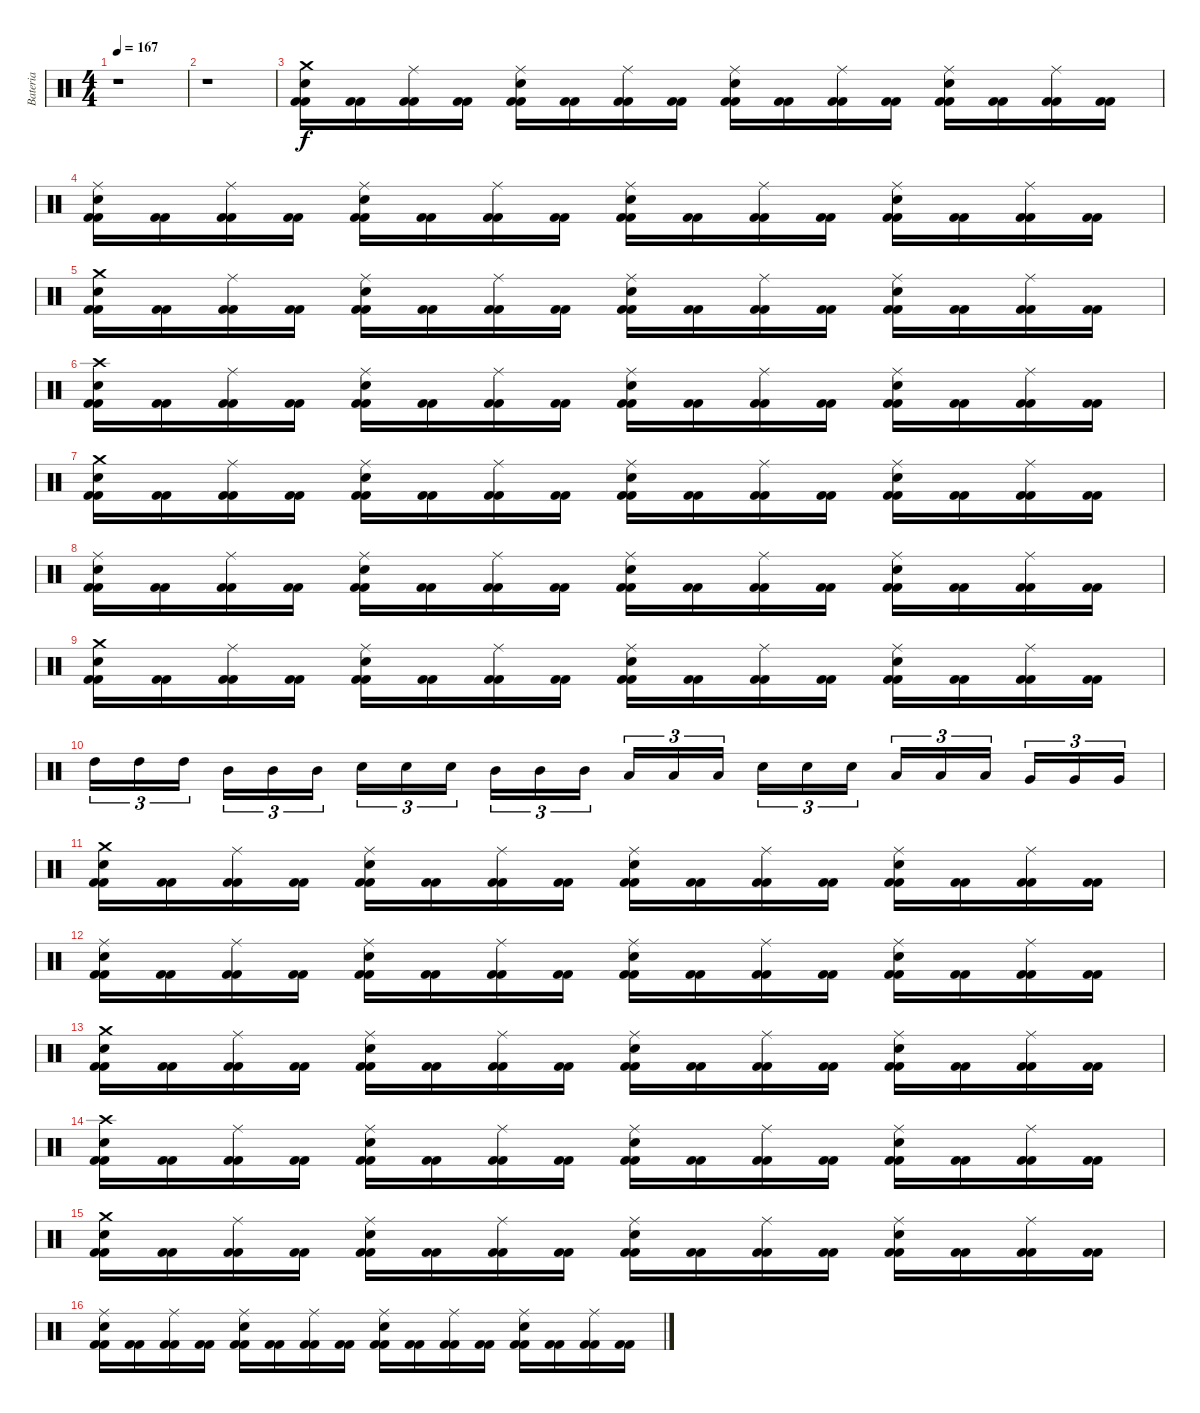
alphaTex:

\track ("Bateria" "Bateria") {instrument percussion}
\staff {score}
\articulation defaults
\ts (4 4)
\tempo 167
\clef neutral
\ks c
r.1{dy f} |
r.1 |
("Kick (hit) 2" "Kick (hit) 2" "Snare (hit) 2" "Crash medium (hit)").16 ("Kick (hit) 2" "Kick (hit) 2").16 ("Kick (hit) 2" "Kick (hit) 2" "Ride (middle)").16 ("Kick (hit) 2" "Kick (hit) 2").16 ("Kick (hit) 2" "Kick (hit) 2" "Snare (hit) 2" "Ride (middle)").16 ("Kick (hit) 2" "Kick (hit) 2").16 ("Kick (hit) 2" "Kick (hit) 2" "Ride (middle)").16 ("Kick (hit) 2" "Kick (hit) 2").16 ("Kick (hit) 2" "Kick (hit) 2" "Snare (hit) 2" "Ride (middle)").16 ("Kick (hit) 2" "Kick (hit) 2").16 ("Kick (hit) 2" "Kick (hit) 2" "Ride (middle)").16 ("Kick (hit) 2" "Kick (hit) 2").16 ("Kick (hit) 2" "Kick (hit) 2" "Snare (hit) 2" "Ride (middle)").16 ("Kick (hit) 2" "Kick (hit) 2").16 ("Kick (hit) 2" "Kick (hit) 2" "Ride (middle)").16 ("Kick (hit) 2" "Kick (hit) 2").16 |
("Kick (hit) 2" "Kick (hit) 2" "Snare (hit) 2" "Ride (middle)").16 ("Kick (hit) 2" "Kick (hit) 2").16 ("Kick (hit) 2" "Kick (hit) 2" "Ride (middle)").16 ("Kick (hit) 2" "Kick (hit) 2").16 ("Kick (hit) 2" "Kick (hit) 2" "Snare (hit) 2" "Ride (middle)").16 ("Kick (hit) 2" "Kick (hit) 2").16 ("Kick (hit) 2" "Kick (hit) 2" "Ride (middle)").16 ("Kick (hit) 2" "Kick (hit) 2").16 ("Kick (hit) 2" "Kick (hit) 2" "Snare (hit) 2" "Ride (middle)").16 ("Kick (hit) 2" "Kick (hit) 2").16 ("Kick (hit) 2" "Kick (hit) 2" "Ride (middle)").16 ("Kick (hit) 2" "Kick (hit) 2").16 ("Kick (hit) 2" "Kick (hit) 2" "Snare (hit) 2" "Ride (middle)").16 ("Kick (hit) 2" "Kick (hit) 2").16 ("Kick (hit) 2" "Kick (hit) 2" "Ride (middle)").16 ("Kick (hit) 2" "Kick (hit) 2").16 |
("Kick (hit) 2" "Kick (hit) 2" "Snare (hit) 2" "Crash medium (hit)").16 ("Kick (hit) 2" "Kick (hit) 2").16 ("Kick (hit) 2" "Kick (hit) 2" "Ride (middle)").16 ("Kick (hit) 2" "Kick (hit) 2").16 ("Kick (hit) 2" "Kick (hit) 2" "Snare (hit) 2" "Ride (middle)").16 ("Kick (hit) 2" "Kick (hit) 2").16 ("Kick (hit) 2" "Kick (hit) 2" "Ride (middle)").16 ("Kick (hit) 2" "Kick (hit) 2").16 ("Kick (hit) 2" "Kick (hit) 2" "Snare (hit) 2" "Ride (middle)").16 ("Kick (hit) 2" "Kick (hit) 2").16 ("Kick (hit) 2" "Kick (hit) 2" "Ride (middle)").16 ("Kick (hit) 2" "Kick (hit) 2").16 ("Kick (hit) 2" "Kick (hit) 2" "Snare (hit) 2" "Ride (middle)").16 ("Kick (hit) 2" "Kick (hit) 2").16 ("Kick (hit) 2" "Kick (hit) 2" "Ride (middle)").16 ("Kick (hit) 2" "Kick (hit) 2").16 |
("Kick (hit) 2" "Kick (hit) 2" "Snare (hit) 2" "Crash high (hit)").16 ("Kick (hit) 2" "Kick (hit) 2").16 ("Kick (hit) 2" "Kick (hit) 2" "Ride (middle)").16 ("Kick (hit) 2" "Kick (hit) 2").16 ("Kick (hit) 2" "Kick (hit) 2" "Snare (hit) 2" "Ride (middle)").16 ("Kick (hit) 2" "Kick (hit) 2").16 ("Kick (hit) 2" "Kick (hit) 2" "Ride (middle)").16 ("Kick (hit) 2" "Kick (hit) 2").16 ("Kick (hit) 2" "Kick (hit) 2" "Snare (hit) 2" "Ride (middle)").16 ("Kick (hit) 2" "Kick (hit) 2").16 ("Kick (hit) 2" "Kick (hit) 2" "Ride (middle)").16 ("Kick (hit) 2" "Kick (hit) 2").16 ("Kick (hit) 2" "Kick (hit) 2" "Snare (hit) 2" "Ride (middle)").16 ("Kick (hit) 2" "Kick (hit) 2").16 ("Kick (hit) 2" "Kick (hit) 2" "Ride (middle)").16 ("Kick (hit) 2" "Kick (hit) 2").16 |
("Kick (hit) 2" "Kick (hit) 2" "Snare (hit) 2" "Crash medium (hit)").16 ("Kick (hit) 2" "Kick (hit) 2").16 ("Kick (hit) 2" "Kick (hit) 2" "Ride (middle)").16 ("Kick (hit) 2" "Kick (hit) 2").16 ("Kick (hit) 2" "Kick (hit) 2" "Snare (hit) 2" "Ride (middle)").16 ("Kick (hit) 2" "Kick (hit) 2").16 ("Kick (hit) 2" "Kick (hit) 2" "Ride (middle)").16 ("Kick (hit) 2" "Kick (hit) 2").16 ("Kick (hit) 2" "Kick (hit) 2" "Snare (hit) 2" "Ride (middle)").16 ("Kick (hit) 2" "Kick (hit) 2").16 ("Kick (hit) 2" "Kick (hit) 2" "Ride (middle)").16 ("Kick (hit) 2" "Kick (hit) 2").16 ("Kick (hit) 2" "Kick (hit) 2" "Snare (hit) 2" "Ride (middle)").16 ("Kick (hit) 2" "Kick (hit) 2").16 ("Kick (hit) 2" "Kick (hit) 2" "Ride (middle)").16 ("Kick (hit) 2" "Kick (hit) 2").16 |
("Kick (hit) 2" "Kick (hit) 2" "Snare (hit) 2" "Ride (middle)").16 ("Kick (hit) 2" "Kick (hit) 2").16 ("Kick (hit) 2" "Kick (hit) 2" "Ride (middle)").16 ("Kick (hit) 2" "Kick (hit) 2").16 ("Kick (hit) 2" "Kick (hit) 2" "Snare (hit) 2" "Ride (middle)").16 ("Kick (hit) 2" "Kick (hit) 2").16 ("Kick (hit) 2" "Kick (hit) 2" "Ride (middle)").16 ("Kick (hit) 2" "Kick (hit) 2").16 ("Kick (hit) 2" "Kick (hit) 2" "Snare (hit) 2" "Ride (middle)").16 ("Kick (hit) 2" "Kick (hit) 2").16 ("Kick (hit) 2" "Kick (hit) 2" "Ride (middle)").16 ("Kick (hit) 2" "Kick (hit) 2").16 ("Kick (hit) 2" "Kick (hit) 2" "Snare (hit) 2" "Ride (middle)").16 ("Kick (hit) 2" "Kick (hit) 2").16 ("Kick (hit) 2" "Kick (hit) 2" "Ride (middle)").16 ("Kick (hit) 2" "Kick (hit) 2").16 |
("Kick (hit) 2" "Kick (hit) 2" "Snare (hit) 2" "Crash medium (hit)").16 ("Kick (hit) 2" "Kick (hit) 2").16 ("Kick (hit) 2" "Kick (hit) 2" "Ride (middle)").16 ("Kick (hit) 2" "Kick (hit) 2").16 ("Kick (hit) 2" "Kick (hit) 2" "Snare (hit) 2" "Ride (middle)").16 ("Kick (hit) 2" "Kick (hit) 2").16 ("Kick (hit) 2" "Kick (hit) 2" "Ride (middle)").16 ("Kick (hit) 2" "Kick (hit) 2").16 ("Kick (hit) 2" "Kick (hit) 2" "Snare (hit) 2" "Ride (middle)").16 ("Kick (hit) 2" "Kick (hit) 2").16 ("Kick (hit) 2" "Kick (hit) 2" "Ride (middle)").16 ("Kick (hit) 2" "Kick (hit) 2").16 ("Kick (hit) 2" "Kick (hit) 2" "Snare (hit) 2" "Ride (middle)").16 ("Kick (hit) 2" "Kick (hit) 2").16 ("Kick (hit) 2" "Kick (hit) 2" "Ride (middle)").16 ("Kick (hit) 2" "Kick (hit) 2").16 |
"High Tom (hit)".16{tu (3 2)} "High Tom (hit)".16{tu (3 2)} "High Tom (hit)".16{tu (3 2)} "Mid Tom (hit)".16{tu (3 2)} "Mid Tom (hit)".16{tu (3 2)} "Mid Tom (hit)".16{tu (3 2)} "Snare (hit) 2".16{tu (3 2)} "Snare (hit) 2".16{tu (3 2)} "Snare (hit) 2".16{tu (3 2)} "Mid Tom (hit)".16{tu (3 2)} "Mid Tom (hit)".16{tu (3 2)} "Mid Tom (hit)".16{tu (3 2)} "Low Tom (hit)".16{tu (3 2)} "Low Tom (hit)".16{tu (3 2)} "Low Tom (hit)".16{tu (3 2)} "Snare (hit) 2".16{tu (3 2)} "Snare (hit) 2".16{tu (3 2)} "Snare (hit) 2".16{tu (3 2)} "Low Tom (hit)".16{tu (3 2)} "Low Tom (hit)".16{tu (3 2)} "Low Tom (hit)".16{tu (3 2)} "Very Low Tom (hit)".16{tu (3 2)} "Very Low Tom (hit)".16{tu (3 2)} "Very Low Tom (hit)".16{tu (3 2)} |
("Kick (hit) 2" "Kick (hit) 2" "Snare (hit) 2" "Crash medium (hit)").16 ("Kick (hit) 2" "Kick (hit) 2").16 ("Kick (hit) 2" "Kick (hit) 2" "Ride (middle)").16 ("Kick (hit) 2" "Kick (hit) 2").16 ("Kick (hit) 2" "Kick (hit) 2" "Snare (hit) 2" "Ride (middle)").16 ("Kick (hit) 2" "Kick (hit) 2").16 ("Kick (hit) 2" "Kick (hit) 2" "Ride (middle)").16 ("Kick (hit) 2" "Kick (hit) 2").16 ("Kick (hit) 2" "Kick (hit) 2" "Snare (hit) 2" "Ride (middle)").16 ("Kick (hit) 2" "Kick (hit) 2").16 ("Kick (hit) 2" "Kick (hit) 2" "Ride (middle)").16 ("Kick (hit) 2" "Kick (hit) 2").16 ("Kick (hit) 2" "Kick (hit) 2" "Snare (hit) 2" "Ride (middle)").16 ("Kick (hit) 2" "Kick (hit) 2").16 ("Kick (hit) 2" "Kick (hit) 2" "Ride (middle)").16 ("Kick (hit) 2" "Kick (hit) 2").16 |
("Kick (hit) 2" "Kick (hit) 2" "Snare (hit) 2" "Ride (middle)").16 ("Kick (hit) 2" "Kick (hit) 2").16 ("Kick (hit) 2" "Kick (hit) 2" "Ride (middle)").16 ("Kick (hit) 2" "Kick (hit) 2").16 ("Kick (hit) 2" "Kick (hit) 2" "Snare (hit) 2" "Ride (middle)").16 ("Kick (hit) 2" "Kick (hit) 2").16 ("Kick (hit) 2" "Kick (hit) 2" "Ride (middle)").16 ("Kick (hit) 2" "Kick (hit) 2").16 ("Kick (hit) 2" "Kick (hit) 2" "Snare (hit) 2" "Ride (middle)").16 ("Kick (hit) 2" "Kick (hit) 2").16 ("Kick (hit) 2" "Kick (hit) 2" "Ride (middle)").16 ("Kick (hit) 2" "Kick (hit) 2").16 ("Kick (hit) 2" "Kick (hit) 2" "Snare (hit) 2" "Ride (middle)").16 ("Kick (hit) 2" "Kick (hit) 2").16 ("Kick (hit) 2" "Kick (hit) 2" "Ride (middle)").16 ("Kick (hit) 2" "Kick (hit) 2").16 |
("Kick (hit) 2" "Kick (hit) 2" "Snare (hit) 2" "Crash medium (hit)").16 ("Kick (hit) 2" "Kick (hit) 2").16 ("Kick (hit) 2" "Kick (hit) 2" "Ride (middle)").16 ("Kick (hit) 2" "Kick (hit) 2").16 ("Kick (hit) 2" "Kick (hit) 2" "Snare (hit) 2" "Ride (middle)").16 ("Kick (hit) 2" "Kick (hit) 2").16 ("Kick (hit) 2" "Kick (hit) 2" "Ride (middle)").16 ("Kick (hit) 2" "Kick (hit) 2").16 ("Kick (hit) 2" "Kick (hit) 2" "Snare (hit) 2" "Ride (middle)").16 ("Kick (hit) 2" "Kick (hit) 2").16 ("Kick (hit) 2" "Kick (hit) 2" "Ride (middle)").16 ("Kick (hit) 2" "Kick (hit) 2").16 ("Kick (hit) 2" "Kick (hit) 2" "Snare (hit) 2" "Ride (middle)").16 ("Kick (hit) 2" "Kick (hit) 2").16 ("Kick (hit) 2" "Kick (hit) 2" "Ride (middle)").16 ("Kick (hit) 2" "Kick (hit) 2").16 |
("Kick (hit) 2" "Kick (hit) 2" "Snare (hit) 2" "Crash high (hit)").16 ("Kick (hit) 2" "Kick (hit) 2").16 ("Kick (hit) 2" "Kick (hit) 2" "Ride (middle)").16 ("Kick (hit) 2" "Kick (hit) 2").16 ("Kick (hit) 2" "Kick (hit) 2" "Snare (hit) 2" "Ride (middle)").16 ("Kick (hit) 2" "Kick (hit) 2").16 ("Kick (hit) 2" "Kick (hit) 2" "Ride (middle)").16 ("Kick (hit) 2" "Kick (hit) 2").16 ("Kick (hit) 2" "Kick (hit) 2" "Snare (hit) 2" "Ride (middle)").16 ("Kick (hit) 2" "Kick (hit) 2").16 ("Kick (hit) 2" "Kick (hit) 2" "Ride (middle)").16 ("Kick (hit) 2" "Kick (hit) 2").16 ("Kick (hit) 2" "Kick (hit) 2" "Snare (hit) 2" "Ride (middle)").16 ("Kick (hit) 2" "Kick (hit) 2").16 ("Kick (hit) 2" "Kick (hit) 2" "Ride (middle)").16 ("Kick (hit) 2" "Kick (hit) 2").16 |
("Kick (hit) 2" "Kick (hit) 2" "Snare (hit) 2" "Crash medium (hit)").16 ("Kick (hit) 2" "Kick (hit) 2").16 ("Kick (hit) 2" "Kick (hit) 2" "Ride (middle)").16 ("Kick (hit) 2" "Kick (hit) 2").16 ("Kick (hit) 2" "Kick (hit) 2" "Snare (hit) 2" "Ride (middle)").16 ("Kick (hit) 2" "Kick (hit) 2").16 ("Kick (hit) 2" "Kick (hit) 2" "Ride (middle)").16 ("Kick (hit) 2" "Kick (hit) 2").16 ("Kick (hit) 2" "Kick (hit) 2" "Snare (hit) 2" "Ride (middle)").16 ("Kick (hit) 2" "Kick (hit) 2").16 ("Kick (hit) 2" "Kick (hit) 2" "Ride (middle)").16 ("Kick (hit) 2" "Kick (hit) 2").16 ("Kick (hit) 2" "Kick (hit) 2" "Snare (hit) 2" "Ride (middle)").16 ("Kick (hit) 2" "Kick (hit) 2").16 ("Kick (hit) 2" "Kick (hit) 2" "Ride (middle)").16 ("Kick (hit) 2" "Kick (hit) 2").16 |
("Kick (hit) 2" "Kick (hit) 2" "Snare (hit) 2" "Ride (middle)").16 ("Kick (hit) 2" "Kick (hit) 2").16 ("Kick (hit) 2" "Kick (hit) 2" "Ride (middle)").16 ("Kick (hit) 2" "Kick (hit) 2").16 ("Kick (hit) 2" "Kick (hit) 2" "Snare (hit) 2" "Ride (middle)").16 ("Kick (hit) 2" "Kick (hit) 2").16 ("Kick (hit) 2" "Kick (hit) 2" "Ride (middle)").16 ("Kick (hit) 2" "Kick (hit) 2").16 ("Kick (hit) 2" "Kick (hit) 2" "Snare (hit) 2" "Ride (middle)").16 ("Kick (hit) 2" "Kick (hit) 2").16 ("Kick (hit) 2" "Kick (hit) 2" "Ride (middle)").16 ("Kick (hit) 2" "Kick (hit) 2").16 ("Kick (hit) 2" "Kick (hit) 2" "Snare (hit) 2" "Ride (middle)").16 ("Kick (hit) 2" "Kick (hit) 2").16 ("Kick (hit) 2" "Kick (hit) 2" "Ride (middle)").16 ("Kick (hit) 2" "Kick (hit) 2").16
